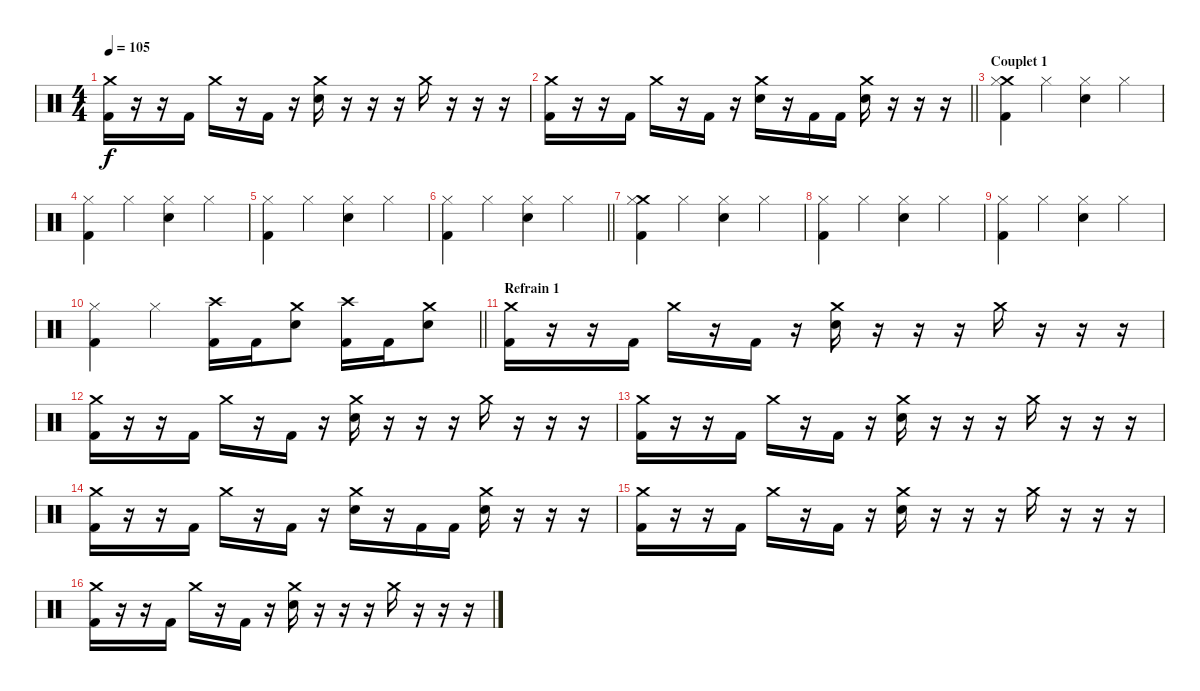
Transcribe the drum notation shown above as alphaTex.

\track "" {instrument percussion}
\staff {score}
\articulation defaults
\ts (4 4)
\section ("" "")
\tempo 105
\clef neutral
\ks c
("Crash medium (hit)" "Kick (hit) 2").16{dy f} r.16 r.16 "Kick (hit) 2".16 "Crash medium (hit)".16 r.16 "Kick (hit) 2".16 r.16 ("Crash medium (hit)" "Snare (hit) 2").16 r.16 r.16 r.16 "Crash medium (hit)".16 r.16 r.16 r.16 |
\barLineRight lightlight
("Crash medium (hit)" "Kick (hit) 2").16 r.16 r.16 "Kick (hit) 2".16 "Crash medium (hit)".16 r.16 "Kick (hit) 2".16 r.16 ("Crash medium (hit)" "Snare (hit) 2").16 r.16 "Kick (hit) 2".16 "Kick (hit) 2".16 ("Crash medium (hit)" "Snare (hit) 2").16 r.16 r.16 r.16 |
\section ("" "Couplet 1")
("Crash medium (hit)" "Hi-Hat (closed)" "Kick (hit) 2").4 "Hi-Hat (closed)".4 ("Hi-Hat (closed)" "Snare (hit) 2").4 "Hi-Hat (closed)".4 |
("Hi-Hat (closed)" "Kick (hit) 2").4 "Hi-Hat (closed)".4 ("Hi-Hat (closed)" "Snare (hit) 2").4 "Hi-Hat (closed)".4 |
("Hi-Hat (closed)" "Kick (hit) 2").4 "Hi-Hat (closed)".4 ("Hi-Hat (closed)" "Snare (hit) 2").4 "Hi-Hat (closed)".4 |
\barLineRight lightlight
("Hi-Hat (closed)" "Kick (hit) 2").4 "Hi-Hat (closed)".4 ("Hi-Hat (closed)" "Snare (hit) 2").4 "Hi-Hat (closed)".4 |
("Crash medium (hit)" "Hi-Hat (closed)" "Kick (hit) 2").4 "Hi-Hat (closed)".4 ("Hi-Hat (closed)" "Snare (hit) 2").4 "Hi-Hat (closed)".4 |
("Hi-Hat (closed)" "Kick (hit) 2").4 "Hi-Hat (closed)".4 ("Hi-Hat (closed)" "Snare (hit) 2").4 "Hi-Hat (closed)".4 |
("Hi-Hat (closed)" "Kick (hit) 2").4 "Hi-Hat (closed)".4 ("Hi-Hat (closed)" "Snare (hit) 2").4 "Hi-Hat (closed)".4 |
\barLineRight lightlight
("Hi-Hat (closed)" "Kick (hit) 2").4 "Hi-Hat (closed)".4 ("Crash high (hit)" "Kick (hit) 2").16 "Kick (hit) 2".16 ("Crash medium (hit)" "Snare (hit) 2").8 ("Crash high (hit)" "Kick (hit) 2").16 "Kick (hit) 2".16 ("Crash medium (hit)" "Snare (hit) 2").8 |
\section ("" "Refrain 1")
("Crash medium (hit)" "Kick (hit) 2").16 r.16 r.16 "Kick (hit) 2".16 "Crash medium (hit)".16 r.16 "Kick (hit) 2".16 r.16 ("Crash medium (hit)" "Snare (hit) 2").16 r.16 r.16 r.16 "Crash medium (hit)".16 r.16 r.16 r.16 |
("Crash medium (hit)" "Kick (hit) 2").16 r.16 r.16 "Kick (hit) 2".16 "Crash medium (hit)".16 r.16 "Kick (hit) 2".16 r.16 ("Crash medium (hit)" "Snare (hit) 2").16 r.16 r.16 r.16 "Crash medium (hit)".16 r.16 r.16 r.16 |
("Crash medium (hit)" "Kick (hit) 2").16 r.16 r.16 "Kick (hit) 2".16 "Crash medium (hit)".16 r.16 "Kick (hit) 2".16 r.16 ("Crash medium (hit)" "Snare (hit) 2").16 r.16 r.16 r.16 "Crash medium (hit)".16 r.16 r.16 r.16 |
("Crash medium (hit)" "Kick (hit) 2").16 r.16 r.16 "Kick (hit) 2".16 "Crash medium (hit)".16 r.16 "Kick (hit) 2".16 r.16 ("Crash medium (hit)" "Snare (hit) 2").16 r.16 "Kick (hit) 2".16 "Kick (hit) 2".16 ("Crash medium (hit)" "Snare (hit) 2").16 r.16 r.16 r.16 |
("Crash medium (hit)" "Kick (hit) 2").16 r.16 r.16 "Kick (hit) 2".16 "Crash medium (hit)".16 r.16 "Kick (hit) 2".16 r.16 ("Crash medium (hit)" "Snare (hit) 2").16 r.16 r.16 r.16 "Crash medium (hit)".16 r.16 r.16 r.16 |
("Crash medium (hit)" "Kick (hit) 2").16 r.16 r.16 "Kick (hit) 2".16 "Crash medium (hit)".16 r.16 "Kick (hit) 2".16 r.16 ("Crash medium (hit)" "Snare (hit) 2").16 r.16 r.16 r.16 "Crash medium (hit)".16 r.16 r.16 r.16
